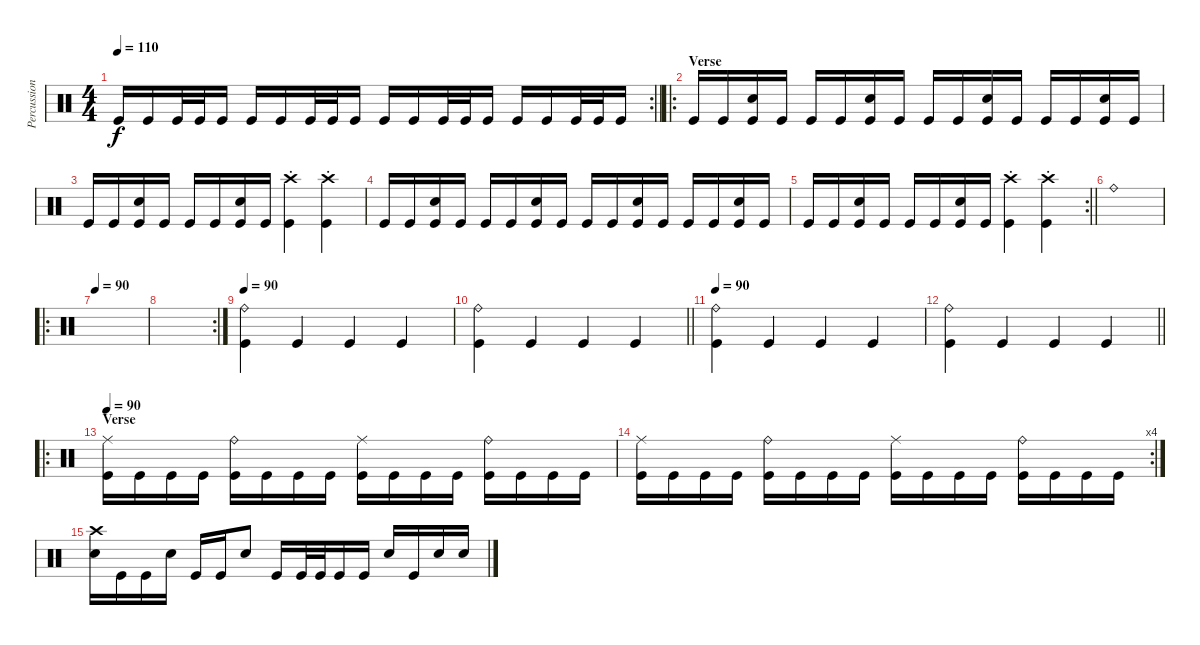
\track ("Percussion" "Percussion") {instrument percussion}
\staff {score}
\articulation defaults
\rc 2
\ts (4 4)
\tempo 110
\clef neutral
\barLineRight lightlight
\ks c "Kick (hit)".16{dy f} "Kick (hit)".16 "Kick (hit)".32 "Kick (hit)".32 "Kick (hit)".16 "Kick (hit)".16 "Kick (hit)".16 "Kick (hit)".32 "Kick (hit)".32 "Kick (hit)".16 "Kick (hit)".16 "Kick (hit)".16 "Kick (hit)".32 "Kick (hit)".32 "Kick (hit)".16 "Kick (hit)".16 "Kick (hit)".16 "Kick (hit)".32 "Kick (hit)".32 "Kick (hit)".16
|
\ro
\section ("" "Verse")
"Kick (hit)".16 "Kick (hit)".16 ("Electric Snare (hit)" "Kick (hit)").16 "Kick (hit)".16 "Kick (hit)".16 "Kick (hit)".16 ("Electric Snare (hit)" "Kick (hit)").16 "Kick (hit)".16 "Kick (hit)".16 "Kick (hit)".16 ("Electric Snare (hit)" "Kick (hit)").16 "Kick (hit)".16 "Kick (hit)".16 "Kick (hit)".16 ("Electric Snare (hit)" "Kick (hit)").16 "Kick (hit)".16 |
"Kick (hit)".16 "Kick (hit)".16 ("Electric Snare (hit)" "Kick (hit)").16 "Kick (hit)".16 "Kick (hit)".16 "Kick (hit)".16 ("Electric Snare (hit)" "Kick (hit)").16 "Kick (hit)".16 ("Crash high (hit)" "Kick (hit)"{st}).4 ("Crash high (hit)" "Kick (hit)"{st}).4 |
"Kick (hit)".16 "Kick (hit)".16 ("Electric Snare (hit)" "Kick (hit)").16 "Kick (hit)".16 "Kick (hit)".16 "Kick (hit)".16 ("Electric Snare (hit)" "Kick (hit)").16 "Kick (hit)".16 "Kick (hit)".16 "Kick (hit)".16 ("Electric Snare (hit)" "Kick (hit)").16 "Kick (hit)".16 "Kick (hit)".16 "Kick (hit)".16 ("Electric Snare (hit)" "Kick (hit)").16 "Kick (hit)".16 |
\rc 2
\barLineRight lightlight "Kick (hit)".16 "Kick (hit)".16
("Electric Snare (hit)" "Kick (hit)").16 "Kick (hit)".16 "Kick (hit)".16 "Kick (hit)".16 ("Electric Snare (hit)" "Kick (hit)").16 "Kick (hit)".16 ("Crash high (hit)" "Kick (hit)"{st}).4 ("Crash high (hit)" "Kick (hit)"{st}).4 |
"Ride (bell)".1 |
\ro
\tempo 90
|
\rc 2
|
\tempo 90
("Ride (bell)" "Kick (hit)").4 "Kick (hit)".4 "Kick (hit)".4 "Kick (hit)".4 |
\barLineRight lightlight
("Ride (bell)" "Kick (hit)").4 "Kick (hit)".4 "Kick (hit)".4 "Kick (hit)".4 |
\tempo 90
("Ride (bell)" "Kick (hit)").4 "Kick (hit)".4 "Kick (hit)".4 "Kick (hit)".4 |
\barLineRight lightlight
("Ride (bell)" "Kick (hit)").4 "Kick (hit)".4 "Kick (hit)".4 "Kick (hit)".4 |
\ro
\section ("" "Verse")
\tempo 90
("Ride (middle)" "Kick (hit)").16 "Kick (hit)".16 "Kick (hit)".16 "Kick (hit)".16 ("Ride (bell)" "Kick (hit)").16 "Kick (hit)".16 "Kick (hit)".16 "Kick (hit)".16 ("Ride (middle)" "Kick (hit)").16 "Kick (hit)".16 "Kick (hit)".16 "Kick (hit)".16 ("Ride (bell)" "Kick (hit)").16 "Kick (hit)".16 "Kick (hit)".16 "Kick (hit)".16 |
\rc 4
("Ride (middle)" "Kick (hit)").16 "Kick (hit)".16 "Kick (hit)".16 "Kick (hit)".16 ("Ride (bell)" "Kick (hit)").16 "Kick (hit)".16 "Kick (hit)".16 "Kick (hit)".16 ("Ride (middle)" "Kick (hit)").16 "Kick (hit)".16 "Kick (hit)".16 "Kick (hit)".16 ("Ride (bell)" "Kick (hit)").16 "Kick (hit)".16 "Kick (hit)".16 "Kick (hit)".16 |
("Crash high (hit)" "Electric Snare (hit)").16 "Kick (hit)".16 "Kick (hit)".16 "Electric Snare (hit)".16 "Kick (hit)".16 "Kick (hit)".16 "Electric Snare (hit)".8 "Kick (hit)".16 "Kick (hit)".32 "Kick (hit)".32 "Kick (hit)".16 "Kick (hit)".16 "Electric Snare (hit)".16 "Kick (hit)".16 "Electric Snare (hit)".16 "Electric Snare (hit)".16
